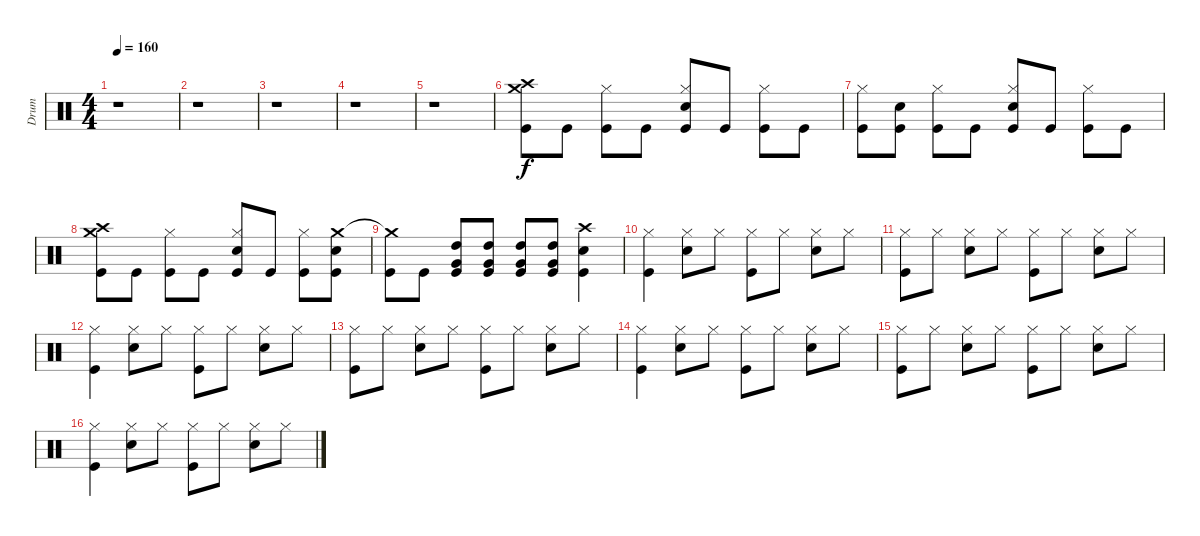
\track ("Drum" "Drum") {instrument percussion}
\staff {score}
\articulation defaults
\ts (4 4)
\tempo 160
\clef neutral
\ks c
r.1{dy f} |
r.1 |
r.1 |
r.1 |
r.1 |
("Crash medium (hit)" "Crash high (hit)" "Kick (hit)").8 "Kick (hit)".8 ("Hi-Hat (closed)" "Kick (hit)").8 "Kick (hit)".8 ("Hi-Hat (closed)" "Snare (hit) 2" "Kick (hit)").8 "Kick (hit)".8 ("Hi-Hat (closed)" "Kick (hit)").8 "Kick (hit)".8 |
("Hi-Hat (closed)" "Kick (hit)").8 ("Snare (hit) 2" "Kick (hit)").8 ("Hi-Hat (closed)" "Kick (hit)").8 "Kick (hit)".8 ("Hi-Hat (closed)" "Snare (hit) 2" "Kick (hit)").8 "Kick (hit)".8 ("Hi-Hat (closed)" "Kick (hit)").8 "Kick (hit)".8 |
("Crash medium (hit)" "Crash high (hit)" "Kick (hit)").8 "Kick (hit)".8 ("Hi-Hat (closed)" "Kick (hit)").8 "Kick (hit)".8 ("Hi-Hat (closed)" "Snare (hit) 2" "Kick (hit)").8 "Kick (hit)".8 ("Hi-Hat (closed)" "Kick (hit)").8 ("Crash medium (hit)" "Snare (hit) 2" "Kick (hit)").8 |
("Crash medium (hit)"{t} "Kick (hit)").8 "Kick (hit)".8 ("High Tom (hit)" "Very Low Tom (hit)" "Kick (hit)").8 ("High Tom (hit)" "Very Low Tom (hit)" "Kick (hit)").8 ("High Tom (hit)" "Very Low Tom (hit)" "Kick (hit)").8 ("High Tom (hit)" "Very Low Tom (hit)" "Kick (hit)").8 ("Crash high (hit)" "Snare (hit) 2" "Kick (hit)").4 |
("Hi-Hat (closed)" "Kick (hit)").4 ("Hi-Hat (closed)" "Snare (hit) 2").8 "Hi-Hat (closed)".8 ("Hi-Hat (closed)" "Kick (hit)").8 "Hi-Hat (closed)".8 ("Hi-Hat (closed)" "Snare (hit) 2").8 "Hi-Hat (closed)".8 |
("Hi-Hat (closed)" "Kick (hit)").8 "Hi-Hat (closed)".8 ("Hi-Hat (closed)" "Snare (hit) 2").8 "Hi-Hat (closed)".8 ("Hi-Hat (closed)" "Kick (hit)").8 "Hi-Hat (closed)".8 ("Hi-Hat (closed)" "Snare (hit) 2").8 "Hi-Hat (closed)".8 |
("Hi-Hat (closed)" "Kick (hit)").4 ("Hi-Hat (closed)" "Snare (hit) 2").8 "Hi-Hat (closed)".8 ("Hi-Hat (closed)" "Kick (hit)").8 "Hi-Hat (closed)".8 ("Hi-Hat (closed)" "Snare (hit) 2").8 "Hi-Hat (closed)".8 |
("Hi-Hat (closed)" "Kick (hit)").8 "Hi-Hat (closed)".8 ("Hi-Hat (closed)" "Snare (hit) 2").8 "Hi-Hat (closed)".8 ("Hi-Hat (closed)" "Kick (hit)").8 "Hi-Hat (closed)".8 ("Hi-Hat (closed)" "Snare (hit) 2").8 "Hi-Hat (closed)".8 |
("Hi-Hat (closed)" "Kick (hit)").4 ("Hi-Hat (closed)" "Snare (hit) 2").8 "Hi-Hat (closed)".8 ("Hi-Hat (closed)" "Kick (hit)").8 "Hi-Hat (closed)".8 ("Hi-Hat (closed)" "Snare (hit) 2").8 "Hi-Hat (closed)".8 |
("Hi-Hat (closed)" "Kick (hit)").8 "Hi-Hat (closed)".8 ("Hi-Hat (closed)" "Snare (hit) 2").8 "Hi-Hat (closed)".8 ("Hi-Hat (closed)" "Kick (hit)").8 "Hi-Hat (closed)".8 ("Hi-Hat (closed)" "Snare (hit) 2").8 "Hi-Hat (closed)".8 |
("Hi-Hat (closed)" "Kick (hit)").4 ("Hi-Hat (closed)" "Snare (hit) 2").8 "Hi-Hat (closed)".8 ("Hi-Hat (closed)" "Kick (hit)").8 "Hi-Hat (closed)".8 ("Hi-Hat (closed)" "Snare (hit) 2").8 "Hi-Hat (closed)".8
